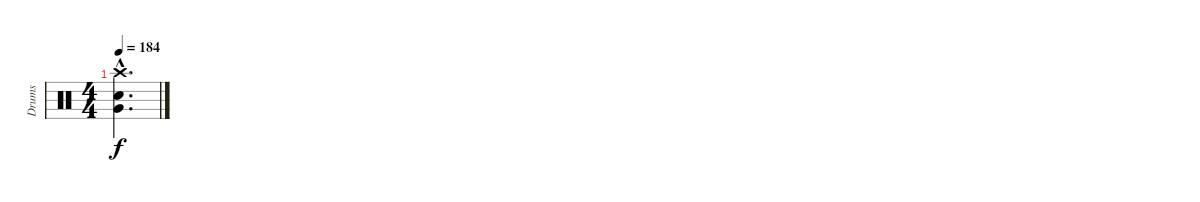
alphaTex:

\track ("Drums" "Drums") {instrument percussion}
\staff {score}
\articulation defaults
\ts (4 4)
\tempo 184
\clef neutral
\ks c
("Crash high (hit)"{hac} "Electric Snare (hit)"{hac} "Very Low Tom (hit)"{hac}).4{d dy f}
